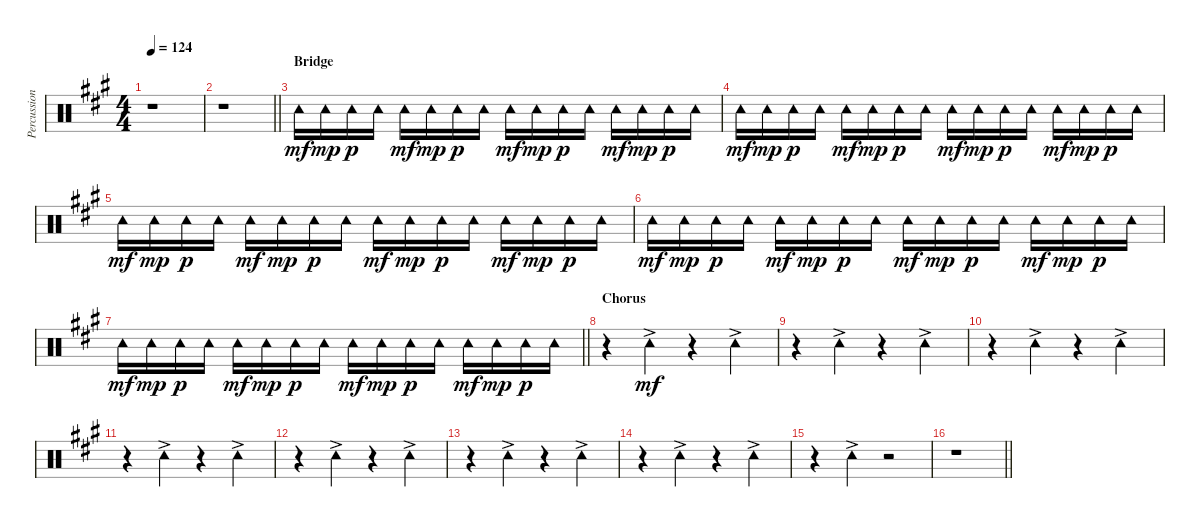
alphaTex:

\track ("Percussion" "Percussion") {instrument percussion}
\staff {score}
\articulation defaults
\ts (4 4)
\tempo 124
\clef neutral
\ks a
r.1{dy mf} |
\barLineRight lightlight
r.1 |
\section ("" "Bridge")
"Tambourine (hit)".16 "Tambourine (hit)".16{dy mp} "Tambourine (hit)".16{dy p} "Tambourine (hit)".16 "Tambourine (hit)".16{dy mf} "Tambourine (hit)".16{dy mp} "Tambourine (hit)".16{dy p} "Tambourine (hit)".16 "Tambourine (hit)".16{dy mf} "Tambourine (hit)".16{dy mp} "Tambourine (hit)".16{dy p} "Tambourine (hit)".16 "Tambourine (hit)".16{dy mf} "Tambourine (hit)".16{dy mp} "Tambourine (hit)".16{dy p} "Tambourine (hit)".16 |
"Tambourine (hit)".16{dy mf} "Tambourine (hit)".16{dy mp} "Tambourine (hit)".16{dy p} "Tambourine (hit)".16 "Tambourine (hit)".16{dy mf} "Tambourine (hit)".16{dy mp} "Tambourine (hit)".16{dy p} "Tambourine (hit)".16 "Tambourine (hit)".16{dy mf} "Tambourine (hit)".16{dy mp} "Tambourine (hit)".16{dy p} "Tambourine (hit)".16 "Tambourine (hit)".16{dy mf} "Tambourine (hit)".16{dy mp} "Tambourine (hit)".16{dy p} "Tambourine (hit)".16 |
"Tambourine (hit)".16{dy mf} "Tambourine (hit)".16{dy mp} "Tambourine (hit)".16{dy p} "Tambourine (hit)".16 "Tambourine (hit)".16{dy mf} "Tambourine (hit)".16{dy mp} "Tambourine (hit)".16{dy p} "Tambourine (hit)".16 "Tambourine (hit)".16{dy mf} "Tambourine (hit)".16{dy mp} "Tambourine (hit)".16{dy p} "Tambourine (hit)".16 "Tambourine (hit)".16{dy mf} "Tambourine (hit)".16{dy mp} "Tambourine (hit)".16{dy p} "Tambourine (hit)".16 |
"Tambourine (hit)".16{dy mf} "Tambourine (hit)".16{dy mp} "Tambourine (hit)".16{dy p} "Tambourine (hit)".16 "Tambourine (hit)".16{dy mf} "Tambourine (hit)".16{dy mp} "Tambourine (hit)".16{dy p} "Tambourine (hit)".16 "Tambourine (hit)".16{dy mf} "Tambourine (hit)".16{dy mp} "Tambourine (hit)".16{dy p} "Tambourine (hit)".16 "Tambourine (hit)".16{dy mf} "Tambourine (hit)".16{dy mp} "Tambourine (hit)".16{dy p} "Tambourine (hit)".16 |
\barLineRight lightlight "Tambourine (hit)".16{dy mf} "Tambourine (hit)".16{dy mp} "Tambourine (hit)".16{dy p} "Tambourine (hit)".16 "Tambourine (hit)".16{dy mf} "Tambourine (hit)".16{dy mp} "Tambourine (hit)".16{dy p} "Tambourine (hit)".16 "Tambourine (hit)".16{dy mf} "Tambourine (hit)".16{dy mp} "Tambourine (hit)".16{dy p} "Tambourine (hit)".16 "Tambourine (hit)".16{dy mf} "Tambourine (hit)".16{dy mp} "Tambourine (hit)".16{dy p} "Tambourine (hit)".16
|
\section ("" "Chorus")
r.4 "Tambourine (hit)"{ac}.4{dy mf} r.4 "Tambourine (hit)"{ac}.4 |
r.4 "Tambourine (hit)"{ac}.4 r.4 "Tambourine (hit)"{ac}.4 |
r.4 "Tambourine (hit)"{ac}.4 r.4 "Tambourine (hit)"{ac}.4 |
r.4 "Tambourine (hit)"{ac}.4 r.4 "Tambourine (hit)"{ac}.4 |
r.4 "Tambourine (hit)"{ac}.4 r.4 "Tambourine (hit)"{ac}.4 |
r.4 "Tambourine (hit)"{ac}.4 r.4 "Tambourine (hit)"{ac}.4 |
r.4 "Tambourine (hit)"{ac}.4 r.4 "Tambourine (hit)"{ac}.4 |
r.4 "Tambourine (hit)"{ac}.4 r.2 |
\barLineRight lightlight
r.1
